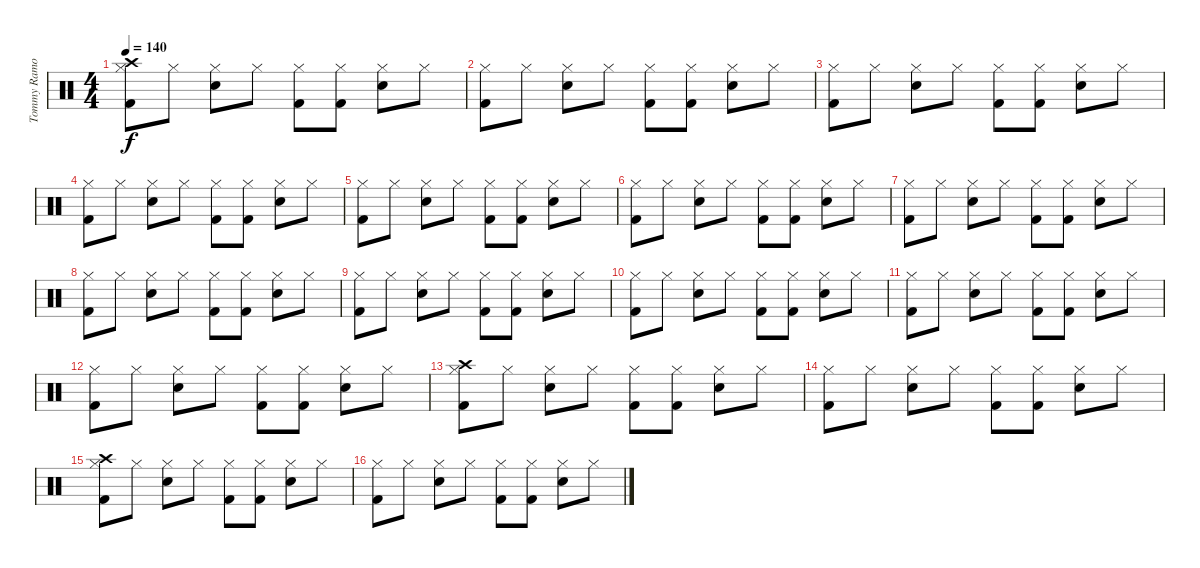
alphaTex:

\track ("Tommy Ramone" "Tommy Ramo") {instrument percussion}
\staff {score}
\articulation defaults
\ts (4 4)
\tempo 140
\clef neutral
\ks c
("Hi-Hat (closed)" "Kick (hit) 2" "Crash high (hit)").8{dy f} "Hi-Hat (closed)".8 ("Hi-Hat (closed)" "Electric Snare (hit)").8 "Hi-Hat (closed)".8 ("Hi-Hat (closed)" "Kick (hit) 2").8 ("Hi-Hat (closed)" "Kick (hit) 2").8 ("Hi-Hat (closed)" "Electric Snare (hit)").8 "Hi-Hat (closed)".8 |
("Hi-Hat (closed)" "Kick (hit) 2").8 "Hi-Hat (closed)".8 ("Hi-Hat (closed)" "Electric Snare (hit)").8 "Hi-Hat (closed)".8 ("Hi-Hat (closed)" "Kick (hit) 2").8 ("Hi-Hat (closed)" "Kick (hit) 2").8 ("Hi-Hat (closed)" "Electric Snare (hit)").8 "Hi-Hat (closed)".8 |
("Hi-Hat (closed)" "Kick (hit) 2").8 "Hi-Hat (closed)".8 ("Hi-Hat (closed)" "Electric Snare (hit)").8 "Hi-Hat (closed)".8 ("Hi-Hat (closed)" "Kick (hit) 2").8 ("Hi-Hat (closed)" "Kick (hit) 2").8 ("Hi-Hat (closed)" "Electric Snare (hit)").8 "Hi-Hat (closed)".8 |
("Hi-Hat (closed)" "Kick (hit) 2").8 "Hi-Hat (closed)".8 ("Hi-Hat (closed)" "Electric Snare (hit)").8 "Hi-Hat (closed)".8 ("Hi-Hat (closed)" "Kick (hit) 2").8 ("Hi-Hat (closed)" "Kick (hit) 2").8 ("Hi-Hat (closed)" "Electric Snare (hit)").8 "Hi-Hat (closed)".8 |
("Hi-Hat (closed)" "Kick (hit) 2").8 "Hi-Hat (closed)".8 ("Hi-Hat (closed)" "Electric Snare (hit)").8 "Hi-Hat (closed)".8 ("Hi-Hat (closed)" "Kick (hit) 2").8 ("Hi-Hat (closed)" "Kick (hit) 2").8 ("Hi-Hat (closed)" "Electric Snare (hit)").8 "Hi-Hat (closed)".8 |
("Hi-Hat (closed)" "Kick (hit) 2").8 "Hi-Hat (closed)".8 ("Hi-Hat (closed)" "Electric Snare (hit)").8 "Hi-Hat (closed)".8 ("Hi-Hat (closed)" "Kick (hit) 2").8 ("Hi-Hat (closed)" "Kick (hit) 2").8 ("Hi-Hat (closed)" "Electric Snare (hit)").8 "Hi-Hat (closed)".8 |
("Hi-Hat (closed)" "Kick (hit) 2").8 "Hi-Hat (closed)".8 ("Hi-Hat (closed)" "Electric Snare (hit)").8 "Hi-Hat (closed)".8 ("Hi-Hat (closed)" "Kick (hit) 2").8 ("Hi-Hat (closed)" "Kick (hit) 2").8 ("Hi-Hat (closed)" "Electric Snare (hit)").8 "Hi-Hat (closed)".8 |
("Hi-Hat (closed)" "Kick (hit) 2").8 "Hi-Hat (closed)".8 ("Hi-Hat (closed)" "Electric Snare (hit)").8 "Hi-Hat (closed)".8 ("Hi-Hat (closed)" "Kick (hit) 2").8 ("Hi-Hat (closed)" "Kick (hit) 2").8 ("Hi-Hat (closed)" "Electric Snare (hit)").8 "Hi-Hat (closed)".8 |
("Hi-Hat (closed)" "Kick (hit) 2").8 "Hi-Hat (closed)".8 ("Hi-Hat (closed)" "Electric Snare (hit)").8 "Hi-Hat (closed)".8 ("Hi-Hat (closed)" "Kick (hit) 2").8 ("Hi-Hat (closed)" "Kick (hit) 2").8 ("Hi-Hat (closed)" "Electric Snare (hit)").8 "Hi-Hat (closed)".8 |
("Hi-Hat (closed)" "Kick (hit) 2").8 "Hi-Hat (closed)".8 ("Hi-Hat (closed)" "Electric Snare (hit)").8 "Hi-Hat (closed)".8 ("Hi-Hat (closed)" "Kick (hit) 2").8 ("Hi-Hat (closed)" "Kick (hit) 2").8 ("Hi-Hat (closed)" "Electric Snare (hit)").8 "Hi-Hat (closed)".8 |
("Hi-Hat (closed)" "Kick (hit) 2").8 "Hi-Hat (closed)".8 ("Hi-Hat (closed)" "Electric Snare (hit)").8 "Hi-Hat (closed)".8 ("Hi-Hat (closed)" "Kick (hit) 2").8 ("Hi-Hat (closed)" "Kick (hit) 2").8 ("Hi-Hat (closed)" "Electric Snare (hit)").8 "Hi-Hat (closed)".8 |
("Hi-Hat (closed)" "Kick (hit) 2").8 "Hi-Hat (closed)".8 ("Hi-Hat (closed)" "Electric Snare (hit)").8 "Hi-Hat (closed)".8 ("Hi-Hat (closed)" "Kick (hit) 2").8 ("Hi-Hat (closed)" "Kick (hit) 2").8 ("Hi-Hat (closed)" "Electric Snare (hit)").8 "Hi-Hat (closed)".8 |
("Hi-Hat (closed)" "Kick (hit) 2" "Crash high (hit)").8 "Hi-Hat (closed)".8 ("Hi-Hat (closed)" "Electric Snare (hit)").8 "Hi-Hat (closed)".8 ("Hi-Hat (closed)" "Kick (hit) 2").8 ("Hi-Hat (closed)" "Kick (hit) 2").8 ("Hi-Hat (closed)" "Electric Snare (hit)").8 "Hi-Hat (closed)".8 |
("Hi-Hat (closed)" "Kick (hit) 2").8 "Hi-Hat (closed)".8 ("Hi-Hat (closed)" "Electric Snare (hit)").8 "Hi-Hat (closed)".8 ("Hi-Hat (closed)" "Kick (hit) 2").8 ("Hi-Hat (closed)" "Kick (hit) 2").8 ("Hi-Hat (closed)" "Electric Snare (hit)").8 "Hi-Hat (closed)".8 |
("Hi-Hat (closed)" "Kick (hit) 2" "Crash high (hit)").8 "Hi-Hat (closed)".8 ("Hi-Hat (closed)" "Electric Snare (hit)").8 "Hi-Hat (closed)".8 ("Hi-Hat (closed)" "Kick (hit) 2").8 ("Hi-Hat (closed)" "Kick (hit) 2").8 ("Hi-Hat (closed)" "Electric Snare (hit)").8 "Hi-Hat (closed)".8 |
("Hi-Hat (closed)" "Kick (hit) 2").8 "Hi-Hat (closed)".8 ("Hi-Hat (closed)" "Electric Snare (hit)").8 "Hi-Hat (closed)".8 ("Hi-Hat (closed)" "Kick (hit) 2").8 ("Hi-Hat (closed)" "Kick (hit) 2").8 ("Hi-Hat (closed)" "Electric Snare (hit)").8 "Hi-Hat (closed)".8
